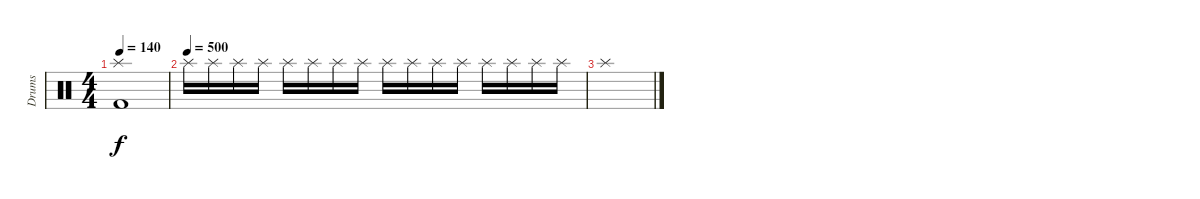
\track ("Drums" "Drums") {instrument percussion}
\staff {score}
\articulation defaults
\ts (4 4)
\tempo 140
\clef neutral
\ks c
("Splash (hit)" "Kick (hit) 2").1{dy f} |
\tempo (500)
"Splash (hit)".16 "Splash (hit)".16 "Splash (hit)".16 "Splash (hit)".16 "Splash (hit)".16 "Splash (hit)".16 "Splash (hit)".16 "Splash (hit)".16 "Splash (hit)".16 "Splash (hit)".16 "Splash (hit)".16 "Splash (hit)".16 "Splash (hit)".16 "Splash (hit)".16 "Splash (hit)".16 "Splash (hit)".16 |
"Splash (hit)".1
